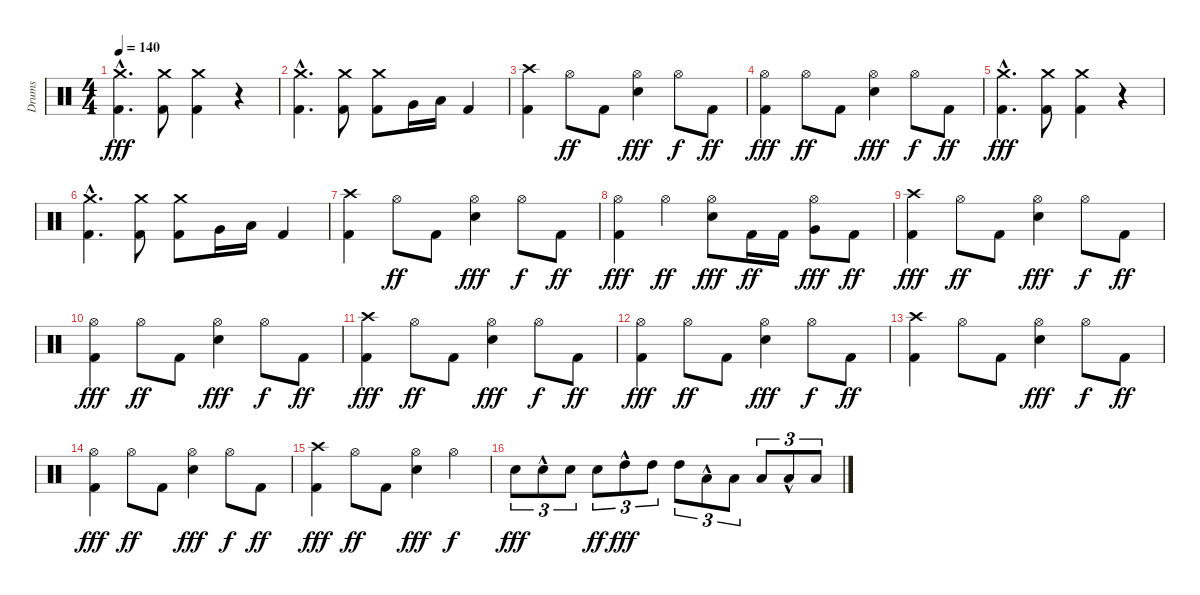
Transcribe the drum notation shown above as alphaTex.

\track ("Drums" "Drums") {instrument percussion}
\staff {score}
\articulation defaults
\ts (4 4)
\tempo 140
\clef neutral
\ks c
("Kick (hit) 2" "Crash medium (hit)"{hac}).4{d dy fff} ("Kick (hit) 2" "Crash medium (hit)").8 ("Kick (hit) 2" "Crash medium (hit)").4 r.4 |
("Kick (hit) 2" "Crash medium (hit)"{hac}).4{d} ("Kick (hit) 2" "Crash medium (hit)").8 ("Kick (hit) 2" "Crash medium (hit)").8 "Very Low Tom (hit)".16 "Low Floor Tom (hit)".16 "Kick (hit) 2".4 |
("Kick (hit) 2" "Crash high (hit)").4 "Hi-Hat (open)".8{dy ff} "Kick (hit) 2".8 ("Hi-Hat (open)" "Electric Snare (hit)").4{dy fff} "Hi-Hat (open)".8{dy f} "Kick (hit) 2".8{dy ff} |
("Hi-Hat (open)" "Kick (hit) 2").4{dy fff} "Hi-Hat (open)".8{dy ff} "Kick (hit) 2".8 ("Hi-Hat (open)" "Electric Snare (hit)").4{dy fff} "Hi-Hat (open)".8{dy f} "Kick (hit) 2".8{dy ff} |
("Kick (hit) 2" "Crash medium (hit)"{hac}).4{d dy fff} ("Kick (hit) 2" "Crash medium (hit)").8 ("Kick (hit) 2" "Crash medium (hit)").4 r.4 |
("Kick (hit) 2" "Crash medium (hit)"{hac}).4{d} ("Kick (hit) 2" "Crash medium (hit)").8 ("Kick (hit) 2" "Crash medium (hit)").8 "Very Low Tom (hit)".16 "Low Floor Tom (hit)".16 "Kick (hit) 2".4 |
("Kick (hit) 2" "Crash high (hit)").4 "Hi-Hat (open)".8{dy ff} "Kick (hit) 2".8 ("Hi-Hat (open)" "Electric Snare (hit)").4{dy fff} "Hi-Hat (open)".8{dy f} "Kick (hit) 2".8{dy ff} |
("Hi-Hat (open)" "Kick (hit) 2").4{dy fff} "Hi-Hat (open)".4{dy ff} ("Hi-Hat (open)" "Electric Snare (hit)").8{dy fff} "Kick (hit) 2".16{dy ff} "Kick (hit) 2".16 ("Hi-Hat (open)" "Very Low Tom (hit)").8{dy fff} "Kick (hit) 2".8{dy ff} |
("Kick (hit) 2" "Crash high (hit)").4{dy fff} "Hi-Hat (open)".8{dy ff} "Kick (hit) 2".8 ("Hi-Hat (open)" "Electric Snare (hit)").4{dy fff} "Hi-Hat (open)".8{dy f} "Kick (hit) 2".8{dy ff} |
("Hi-Hat (open)" "Kick (hit) 2").4{dy fff} "Hi-Hat (open)".8{dy ff} "Kick (hit) 2".8 ("Hi-Hat (open)" "Electric Snare (hit)").4{dy fff} "Hi-Hat (open)".8{dy f} "Kick (hit) 2".8{dy ff} |
("Kick (hit) 2" "Crash high (hit)").4{dy fff} "Hi-Hat (open)".8{dy ff} "Kick (hit) 2".8 ("Hi-Hat (open)" "Electric Snare (hit)").4{dy fff} "Hi-Hat (open)".8{dy f} "Kick (hit) 2".8{dy ff} |
("Hi-Hat (open)" "Kick (hit) 2").4{dy fff} "Hi-Hat (open)".8{dy ff} "Kick (hit) 2".8 ("Hi-Hat (open)" "Electric Snare (hit)").4{dy fff} "Hi-Hat (open)".8{dy f} "Kick (hit) 2".8{dy ff} |
("Kick (hit) 2" "Crash high (hit)").4 "Hi-Hat (open)".8 "Kick (hit) 2".8 ("Hi-Hat (open)" "Electric Snare (hit)").4{dy fff} "Hi-Hat (open)".8{dy f} "Kick (hit) 2".8{dy ff} |
("Hi-Hat (open)" "Kick (hit) 2").4{dy fff} "Hi-Hat (open)".8{dy ff} "Kick (hit) 2".8 ("Hi-Hat (open)" "Electric Snare (hit)").4{dy fff} "Hi-Hat (open)".8{dy f} "Kick (hit) 2".8{dy ff} |
("Kick (hit) 2" "Crash high (hit)").4{dy fff} "Hi-Hat (open)".8{dy ff} "Kick (hit) 2".8 ("Hi-Hat (open)" "Electric Snare (hit)").4{dy fff} "Hi-Hat (open)".4{dy f} |
"Electric Snare (hit)".8{tu (3 2) dy fff} "Electric Snare (hit)"{hac}.8{tu (3 2)} "Electric Snare (hit)".8{tu (3 2)} "Electric Snare (hit)".8{tu (3 2) dy ff} "High Tom (hit)"{hac}.8{tu (3 2) dy fff} "High Tom (hit)".8{tu (3 2)} "High Tom (hit)".8{tu (3 2)} "Low Tom (hit)"{hac}.8{tu (3 2)} "Low Tom (hit)".8{tu (3 2)} "Low Tom (hit)".8{tu (3 2)} "Low Floor Tom (hit)"{hac}.8{tu (3 2)} "Low Floor Tom (hit)".8{tu (3 2)}
